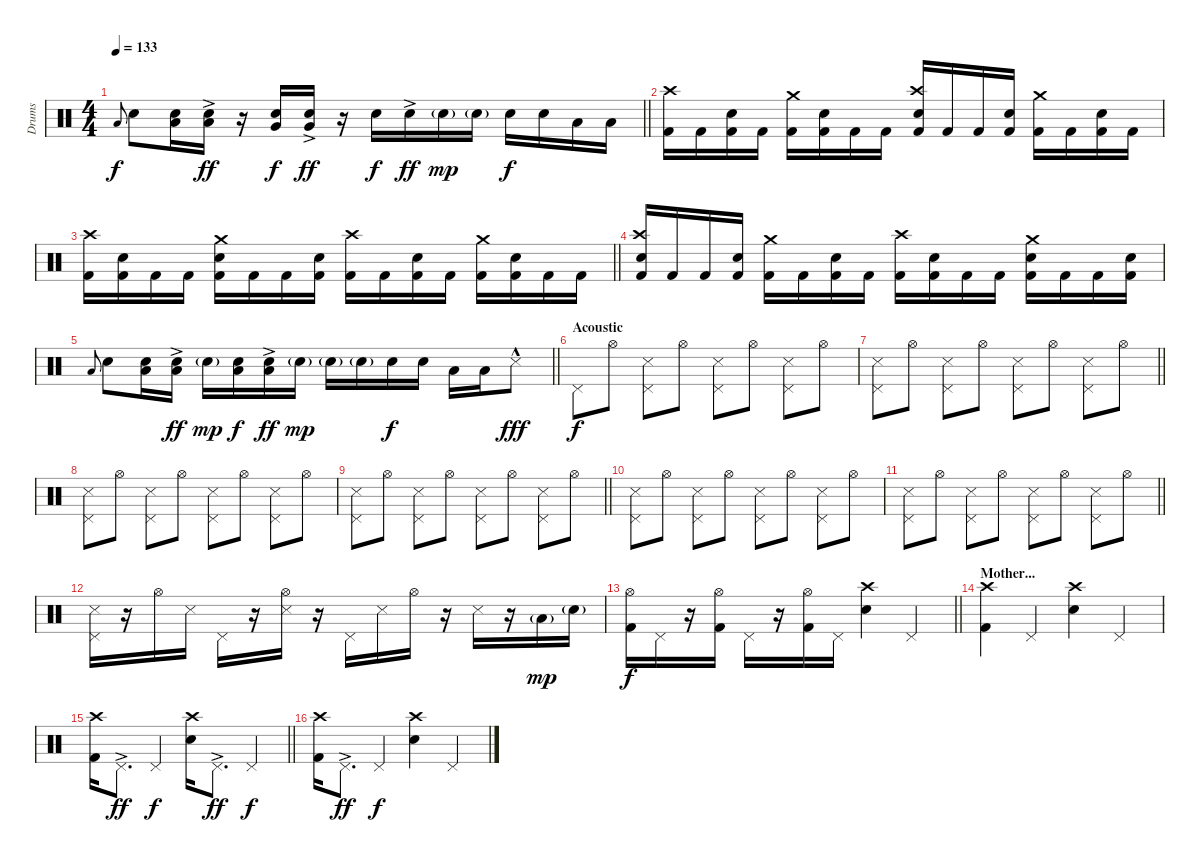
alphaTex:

\track ("Drums" "Drums") {instrument percussion}
\staff {score}
\articulation defaults
\ts (4 4)
\tempo 133
\clef neutral
\barLineRight lightlight
\ks c "Low Tom (hit)".8{gr onbeat dy f} "Snare (hit) 2".8
("Low Tom (hit)" "Snare (hit) 2").16 ("Low Tom (hit)"{ac} "Snare (hit) 2").16{dy ff} r.16 ("Very Low Tom (hit)" "Snare (hit) 2").16{dy f} ("Very Low Tom (hit)"{ac} "Snare (hit) 2").16{dy ff} r.16 "Snare (hit) 2".16{dy f} "Snare (hit) 2"{ac}.16{dy ff} "Electric Snare (hit)"{g}.16{dy mp} "Electric Snare (hit)"{g}.16 "Snare (hit) 2".16{dy f} "Snare (hit) 2".16 "Low Tom (hit)".16 "Low Tom (hit)".16 |
\section ("" "")
("Crash high (hit)" "Kick (hit) 2").16 "Kick (hit) 2".16 ("Snare (hit) 2" "Kick (hit) 2").16 "Kick (hit) 2".16 ("Crash medium (hit)" "Kick (hit) 2").16 ("Snare (hit) 2" "Kick (hit) 2").16 "Kick (hit) 2".16 "Kick (hit) 2".16 ("Crash high (hit)" "Snare (hit) 2" "Kick (hit) 2").16 "Kick (hit) 2".16 "Kick (hit) 2".16 ("Snare (hit) 2" "Kick (hit) 2").16 ("Crash medium (hit)" "Kick (hit) 2").16 "Kick (hit) 2".16 ("Snare (hit) 2" "Kick (hit) 2").16 "Kick (hit) 2".16 |
\barLineRight lightlight
("Crash high (hit)" "Kick (hit) 2").16 ("Snare (hit) 2" "Kick (hit) 2").16 "Kick (hit) 2".16 "Kick (hit) 2".16 ("Crash medium (hit)" "Snare (hit) 2" "Kick (hit) 2").16 "Kick (hit) 2".16 "Kick (hit) 2".16 ("Snare (hit) 2" "Kick (hit) 2").16 ("Crash high (hit)" "Kick (hit) 2").16 "Kick (hit) 2".16 ("Snare (hit) 2" "Kick (hit) 2").16 "Kick (hit) 2".16 ("Crash medium (hit)" "Kick (hit) 2").16 ("Snare (hit) 2" "Kick (hit) 2").16 "Kick (hit) 2".16 "Kick (hit) 2".16 |
("Crash high (hit)" "Snare (hit) 2" "Kick (hit) 2").16 "Kick (hit) 2".16 "Kick (hit) 2".16 ("Snare (hit) 2" "Kick (hit) 2").16 ("Crash medium (hit)" "Kick (hit) 2").16 "Kick (hit) 2".16 ("Snare (hit) 2" "Kick (hit) 2").16 "Kick (hit) 2".16 ("Crash high (hit)" "Kick (hit) 2").16 ("Snare (hit) 2" "Kick (hit) 2").16 "Kick (hit) 2".16 "Kick (hit) 2".16 ("Crash medium (hit)" "Snare (hit) 2" "Kick (hit) 2").16 "Kick (hit) 2".16 "Kick (hit) 2".16 ("Snare (hit) 2" "Kick (hit) 2").16 |
\barLineRight lightlight "Low Tom (hit)".8{gr onbeat} "Snare (hit) 2".8
("Low Tom (hit)" "Snare (hit) 2").16 ("Low Tom (hit)"{ac} "Snare (hit) 2").16{dy ff} "Snare (hit) 2"{g}.16{dy mp} ("Low Tom (hit)" "Snare (hit) 2").16{dy f} ("Low Tom (hit)"{ac} "Snare (hit) 2").16{dy ff} "Snare (hit) 2"{g}.16{dy mp} "Snare (hit) 2"{g}.16 "Electric Snare (hit)"{g}.16 "Electric Snare (hit)".16{dy f} "Snare (hit) 2".16 "Low Tom (hit)".16 "Low Tom (hit)".16 "Snare (side stick) 3"{hac}.8{dy fff} |
\section ("" "Acoustic")
"Pedal Hi-Hat (hit)".8{dy f} "Hi-Hat (open)".8 ("Pedal Hi-Hat (hit)" "Snare (side stick) 3").8 "Hi-Hat (open)".8 ("Pedal Hi-Hat (hit)" "Snare (side stick) 3").8 "Hi-Hat (open)".8 ("Pedal Hi-Hat (hit)" "Snare (side stick) 3").8 "Hi-Hat (open)".8 |
\barLineRight lightlight
("Pedal Hi-Hat (hit)" "Snare (side stick) 3").8 "Hi-Hat (open)".8 ("Pedal Hi-Hat (hit)" "Snare (side stick) 3").8 "Hi-Hat (open)".8 ("Pedal Hi-Hat (hit)" "Snare (side stick) 3").8 "Hi-Hat (open)".8 ("Pedal Hi-Hat (hit)" "Snare (side stick) 3").8 "Hi-Hat (open)".8 |
("Pedal Hi-Hat (hit)" "Snare (side stick) 3").8 "Hi-Hat (open)".8 ("Pedal Hi-Hat (hit)" "Snare (side stick) 3").8 "Hi-Hat (open)".8 ("Pedal Hi-Hat (hit)" "Snare (side stick) 3").8 "Hi-Hat (open)".8 ("Pedal Hi-Hat (hit)" "Snare (side stick) 3").8 "Hi-Hat (open)".8 |
\barLineRight lightlight
("Pedal Hi-Hat (hit)" "Snare (side stick) 3").8 "Hi-Hat (open)".8 ("Pedal Hi-Hat (hit)" "Snare (side stick) 3").8 "Hi-Hat (open)".8 ("Pedal Hi-Hat (hit)" "Snare (side stick) 3").8 "Hi-Hat (open)".8 ("Pedal Hi-Hat (hit)" "Snare (side stick) 3").8 "Hi-Hat (open)".8 |
\section ("" "")
("Pedal Hi-Hat (hit)" "Snare (side stick) 3").8 "Hi-Hat (open)".8 ("Pedal Hi-Hat (hit)" "Snare (side stick) 3").8 "Hi-Hat (open)".8 ("Pedal Hi-Hat (hit)" "Snare (side stick) 3").8 "Hi-Hat (open)".8 ("Pedal Hi-Hat (hit)" "Snare (side stick) 3").8 "Hi-Hat (open)".8 |
\barLineRight lightlight
("Pedal Hi-Hat (hit)" "Snare (side stick) 3").8 "Hi-Hat (open)".8 ("Pedal Hi-Hat (hit)" "Snare (side stick) 3").8 "Hi-Hat (open)".8 ("Pedal Hi-Hat (hit)" "Snare (side stick) 3").8 "Hi-Hat (open)".8 ("Pedal Hi-Hat (hit)" "Snare (side stick) 3").8 "Hi-Hat (open)".8 |
("Pedal Hi-Hat (hit)" "Snare (side stick) 3").16 r.16 "Hi-Hat (open)".16 "Snare (side stick) 3".16 "Pedal Hi-Hat (hit)".16 r.16 ("Hi-Hat (open)" "Snare (side stick) 3").16 r.16 "Pedal Hi-Hat (hit)".16 "Snare (side stick) 3".16 "Hi-Hat (open)".16 r.16 "Snare (side stick) 3".16 r.16 "Low Tom (hit)"{g}.16{dy mp} "Snare (hit) 2"{g}.16 |
\barLineRight lightlight
("Hi-Hat (open)" "Kick (hit) 2").16{dy f} "Pedal Hi-Hat (hit)".16 r.16 ("Hi-Hat (open)" "Kick (hit) 2").16 "Pedal Hi-Hat (hit)".16 r.16 ("Hi-Hat (open)" "Kick (hit) 2").16 "Pedal Hi-Hat (hit)".16 ("Crash high (hit)" "Snare (hit) 2").4 "Pedal Hi-Hat (hit)".4 |
\section ("" "Mother...")
("Crash high (hit)" "Kick (hit) 2").4 "Pedal Hi-Hat (hit)".4 ("Crash high (hit)" "Snare (hit) 2").4 "Pedal Hi-Hat (hit)".4 |
\barLineRight lightlight
("Crash high (hit)" "Kick (hit) 2").16 "Pedal Hi-Hat (hit)"{ac}.8{d dy ff} "Pedal Hi-Hat (hit)".4{dy f} ("Crash high (hit)" "Snare (hit) 2").16 "Pedal Hi-Hat (hit)"{ac}.8{d dy ff} "Pedal Hi-Hat (hit)".4{dy f} |
("Crash high (hit)" "Kick (hit) 2").16 "Pedal Hi-Hat (hit)"{ac}.8{d dy ff} "Pedal Hi-Hat (hit)".4{dy f} ("Crash high (hit)" "Snare (hit) 2").4 "Pedal Hi-Hat (hit)".4
